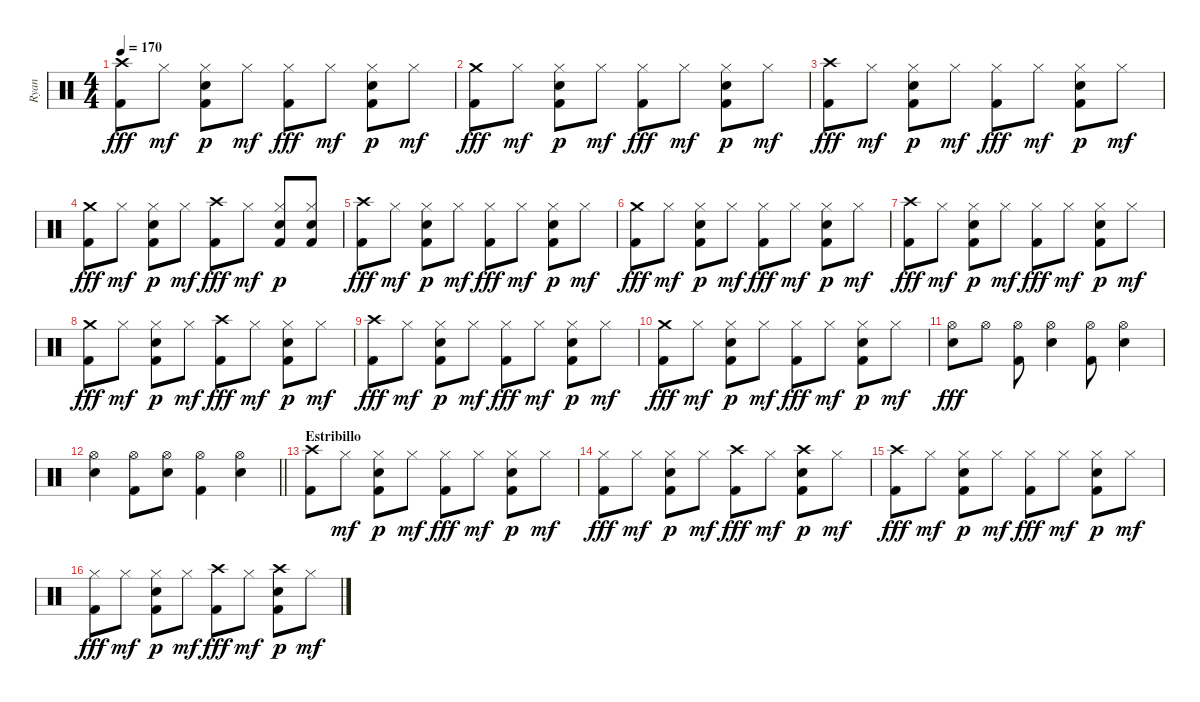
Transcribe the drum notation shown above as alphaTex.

\track ("Ryan" "Ryan") {instrument percussion}
\staff {score}
\articulation defaults
\ts (4 4)
\tempo 170
\clef neutral
\ks c
("Kick (hit) 2" "Crash high (hit)").8{dy fff} "Hi-Hat (closed)".8{dy mf} ("Snare (hit) 2" "Hi-Hat (closed)" "Kick (hit) 2").8{dy p} "Hi-Hat (closed)".8{dy mf} ("Kick (hit) 2" "Hi-Hat (closed)").8{dy fff} "Hi-Hat (closed)".8{dy mf} ("Snare (hit) 2" "Hi-Hat (closed)" "Kick (hit) 2").8{dy p} "Hi-Hat (closed)".8{dy mf} |
("Kick (hit) 2" "Crash medium (hit)").8{dy fff} "Hi-Hat (closed)".8{dy mf} ("Snare (hit) 2" "Hi-Hat (closed)" "Kick (hit) 2").8{dy p} "Hi-Hat (closed)".8{dy mf} ("Kick (hit) 2" "Hi-Hat (closed)").8{dy fff} "Hi-Hat (closed)".8{dy mf} ("Snare (hit) 2" "Hi-Hat (closed)" "Kick (hit) 2").8{dy p} "Hi-Hat (closed)".8{dy mf} |
("Kick (hit) 2" "Crash high (hit)").8{dy fff} "Hi-Hat (closed)".8{dy mf} ("Snare (hit) 2" "Hi-Hat (closed)" "Kick (hit) 2").8{dy p} "Hi-Hat (closed)".8{dy mf} ("Kick (hit) 2" "Hi-Hat (closed)").8{dy fff} "Hi-Hat (closed)".8{dy mf} ("Snare (hit) 2" "Hi-Hat (closed)" "Kick (hit) 2").8{dy p} "Hi-Hat (closed)".8{dy mf} |
("Kick (hit) 2" "Crash medium (hit)").8{dy fff} "Hi-Hat (closed)".8{dy mf} ("Snare (hit) 2" "Hi-Hat (closed)" "Kick (hit) 2").8{dy p} "Hi-Hat (closed)".8{dy mf} ("Kick (hit) 2" "Crash high (hit)").8{dy fff} "Hi-Hat (closed)".8{dy mf} ("Snare (hit) 2" "Hi-Hat (closed)" "Kick (hit) 2").8{dy p} ("Snare (hit) 2" "Hi-Hat (closed)" "Kick (hit) 2").8 |
("Kick (hit) 2" "Crash high (hit)").8{dy fff} "Hi-Hat (closed)".8{dy mf} ("Snare (hit) 2" "Hi-Hat (closed)" "Kick (hit) 2").8{dy p} "Hi-Hat (closed)".8{dy mf} ("Kick (hit) 2" "Hi-Hat (closed)").8{dy fff} "Hi-Hat (closed)".8{dy mf} ("Snare (hit) 2" "Hi-Hat (closed)" "Kick (hit) 2").8{dy p} "Hi-Hat (closed)".8{dy mf} |
("Kick (hit) 2" "Crash medium (hit)").8{dy fff} "Hi-Hat (closed)".8{dy mf} ("Snare (hit) 2" "Hi-Hat (closed)" "Kick (hit) 2").8{dy p} "Hi-Hat (closed)".8{dy mf} ("Kick (hit) 2" "Hi-Hat (closed)").8{dy fff} "Hi-Hat (closed)".8{dy mf} ("Snare (hit) 2" "Hi-Hat (closed)" "Kick (hit) 2").8{dy p} "Hi-Hat (closed)".8{dy mf} |
("Kick (hit) 2" "Crash high (hit)").8{dy fff} "Hi-Hat (closed)".8{dy mf} ("Snare (hit) 2" "Hi-Hat (closed)" "Kick (hit) 2").8{dy p} "Hi-Hat (closed)".8{dy mf} ("Kick (hit) 2" "Hi-Hat (closed)").8{dy fff} "Hi-Hat (closed)".8{dy mf} ("Snare (hit) 2" "Hi-Hat (closed)" "Kick (hit) 2").8{dy p} "Hi-Hat (closed)".8{dy mf} |
("Kick (hit) 2" "Crash medium (hit)").8{dy fff} "Hi-Hat (closed)".8{dy mf} ("Snare (hit) 2" "Hi-Hat (closed)" "Kick (hit) 2").8{dy p} "Hi-Hat (closed)".8{dy mf} ("Kick (hit) 2" "Crash high (hit)").8{dy fff} "Hi-Hat (closed)".8{dy mf} ("Snare (hit) 2" "Hi-Hat (closed)" "Kick (hit) 2").8{dy p} "Hi-Hat (closed)".8{dy mf} |
("Kick (hit) 2" "Crash high (hit)").8{dy fff} "Hi-Hat (closed)".8{dy mf} ("Snare (hit) 2" "Hi-Hat (closed)" "Kick (hit) 2").8{dy p} "Hi-Hat (closed)".8{dy mf} ("Kick (hit) 2" "Hi-Hat (closed)").8{dy fff} "Hi-Hat (closed)".8{dy mf} ("Snare (hit) 2" "Hi-Hat (closed)" "Kick (hit) 2").8{dy p} "Hi-Hat (closed)".8{dy mf} |
("Kick (hit) 2" "Crash medium (hit)").8{dy fff} "Hi-Hat (closed)".8{dy mf} ("Snare (hit) 2" "Hi-Hat (closed)" "Kick (hit) 2").8{dy p} "Hi-Hat (closed)".8{dy mf} ("Kick (hit) 2" "Hi-Hat (closed)").8{dy fff} "Hi-Hat (closed)".8{dy mf} ("Snare (hit) 2" "Hi-Hat (closed)" "Kick (hit) 2").8{dy p} "Hi-Hat (closed)".8{dy mf} |
("Hi-Hat (open)" "Snare (hit) 2").8{dy fff} "Hi-Hat (open)".8 ("Hi-Hat (open)" "Kick (hit) 2").8 ("Hi-Hat (open)" "Snare (hit) 2").4 ("Hi-Hat (open)" "Kick (hit) 2").8 ("Hi-Hat (open)" "Snare (hit) 2").4 |
\barLineRight lightlight
("Hi-Hat (open)" "Snare (hit) 2").4 ("Kick (hit) 2" "Hi-Hat (open)").8 ("Snare (hit) 2" "Hi-Hat (open)").8 ("Kick (hit) 2" "Hi-Hat (open)").4 ("Hi-Hat (open)" "Snare (hit) 2").4 |
\section ("" "Estribillo")
("Kick (hit) 2" "Crash high (hit)").8 "Hi-Hat (closed)".8{dy mf} ("Snare (hit) 2" "Hi-Hat (closed)" "Kick (hit) 2").8{dy p} "Hi-Hat (closed)".8{dy mf} ("Kick (hit) 2" "Hi-Hat (closed)").8{dy fff} "Hi-Hat (closed)".8{dy mf} ("Snare (hit) 2" "Hi-Hat (closed)" "Kick (hit) 2").8{dy p} "Hi-Hat (closed)".8{dy mf} |
("Kick (hit) 2" "Hi-Hat (closed)").8{dy fff} "Hi-Hat (closed)".8{dy mf} ("Snare (hit) 2" "Hi-Hat (closed)" "Kick (hit) 2").8{dy p} "Hi-Hat (closed)".8{dy mf} ("Kick (hit) 2" "Crash high (hit)").8{dy fff} "Hi-Hat (closed)".8{dy mf} ("Snare (hit) 2" "Crash high (hit)" "Kick (hit) 2").8{dy p} "Hi-Hat (closed)".8{dy mf} |
("Kick (hit) 2" "Crash high (hit)").8{dy fff} "Hi-Hat (closed)".8{dy mf} ("Snare (hit) 2" "Hi-Hat (closed)" "Kick (hit) 2").8{dy p} "Hi-Hat (closed)".8{dy mf} ("Kick (hit) 2" "Hi-Hat (closed)").8{dy fff} "Hi-Hat (closed)".8{dy mf} ("Snare (hit) 2" "Hi-Hat (closed)" "Kick (hit) 2").8{dy p} "Hi-Hat (closed)".8{dy mf} |
("Kick (hit) 2" "Hi-Hat (closed)").8{dy fff} "Hi-Hat (closed)".8{dy mf} ("Snare (hit) 2" "Hi-Hat (closed)" "Kick (hit) 2").8{dy p} "Hi-Hat (closed)".8{dy mf} ("Kick (hit) 2" "Crash high (hit)").8{dy fff} "Hi-Hat (closed)".8{dy mf} ("Snare (hit) 2" "Crash high (hit)" "Kick (hit) 2").8{dy p} "Hi-Hat (closed)".8{dy mf}
